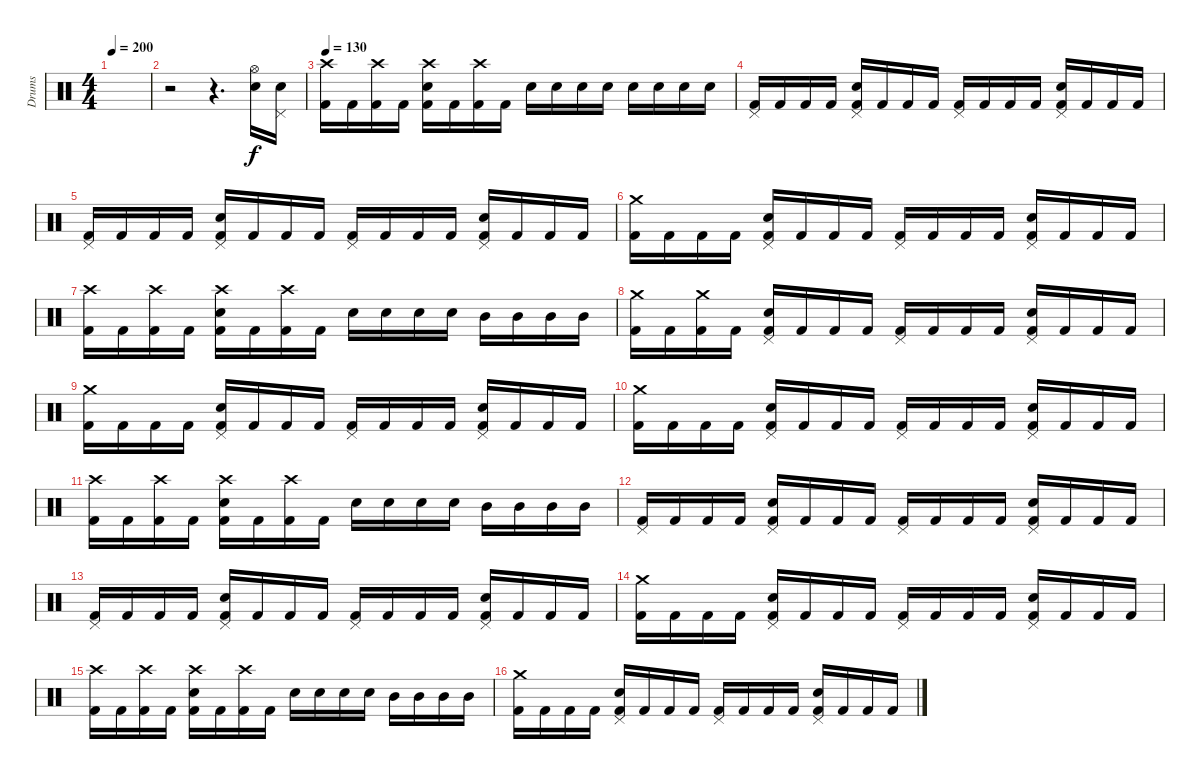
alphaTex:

\track ("Drums" "Drums") {instrument percussion}
\staff {score}
\articulation defaults
\ts (4 4)
\tempo 200
\clef neutral
\ks c
|
r.2 r.4{d} ("Hi-Hat (open)" "Electric Snare (hit)").16 ("Pedal Hi-Hat (hit)" "Electric Snare (hit)").16 |
\tempo 130
("Crash high (hit)" "Kick (hit) 2").16 "Kick (hit) 2".16 ("Crash high (hit)" "Kick (hit) 2").16 "Kick (hit) 2".16 ("Crash high (hit)" "Electric Snare (hit)" "Kick (hit) 2").16 "Kick (hit) 2".16 ("Crash high (hit)" "Kick (hit) 2").16 "Kick (hit) 2".16 "Electric Snare (hit)".16 "Electric Snare (hit)".16 "Electric Snare (hit)".16 "Electric Snare (hit)".16 "Electric Snare (hit)".16 "Electric Snare (hit)".16 "Electric Snare (hit)".16 "Electric Snare (hit)".16 |
("Pedal Hi-Hat (hit)" "Kick (hit) 2").16 "Kick (hit) 2".16 "Kick (hit) 2".16 "Kick (hit) 2".16 ("Pedal Hi-Hat (hit)" "Electric Snare (hit)" "Kick (hit) 2").16 "Kick (hit) 2".16 "Kick (hit) 2".16 "Kick (hit) 2".16 ("Pedal Hi-Hat (hit)" "Kick (hit) 2").16 "Kick (hit) 2".16 "Kick (hit) 2".16 "Kick (hit) 2".16 ("Pedal Hi-Hat (hit)" "Electric Snare (hit)" "Kick (hit) 2").16 "Kick (hit) 2".16 "Kick (hit) 2".16 "Kick (hit) 2".16 |
("Pedal Hi-Hat (hit)" "Kick (hit) 2").16 "Kick (hit) 2".16 "Kick (hit) 2".16 "Kick (hit) 2".16 ("Pedal Hi-Hat (hit)" "Electric Snare (hit)" "Kick (hit) 2").16 "Kick (hit) 2".16 "Kick (hit) 2".16 "Kick (hit) 2".16 ("Pedal Hi-Hat (hit)" "Kick (hit) 2").16 "Kick (hit) 2".16 "Kick (hit) 2".16 "Kick (hit) 2".16 ("Pedal Hi-Hat (hit)" "Electric Snare (hit)" "Kick (hit) 2").16 "Kick (hit) 2".16 "Kick (hit) 2".16 "Kick (hit) 2".16 |
("Crash medium (hit)" "Kick (hit) 2").16 "Kick (hit) 2".16 "Kick (hit) 2".16 "Kick (hit) 2".16 ("Pedal Hi-Hat (hit)" "Electric Snare (hit)" "Kick (hit) 2").16 "Kick (hit) 2".16 "Kick (hit) 2".16 "Kick (hit) 2".16 ("Pedal Hi-Hat (hit)" "Kick (hit) 2").16 "Kick (hit) 2".16 "Kick (hit) 2".16 "Kick (hit) 2".16 ("Pedal Hi-Hat (hit)" "Electric Snare (hit)" "Kick (hit) 2").16 "Kick (hit) 2".16 "Kick (hit) 2".16 "Kick (hit) 2".16 |
("Crash high (hit)" "Kick (hit) 2").16 "Kick (hit) 2".16 ("Crash high (hit)" "Kick (hit) 2").16 "Kick (hit) 2".16 ("Crash high (hit)" "Electric Snare (hit)" "Kick (hit) 2").16 "Kick (hit) 2".16 ("Crash high (hit)" "Kick (hit) 2").16 "Kick (hit) 2".16 "Electric Snare (hit)".16 "Electric Snare (hit)".16 "Electric Snare (hit)".16 "Electric Snare (hit)".16 "Mid Tom (hit)".16 "Mid Tom (hit)".16 "Mid Tom (hit)".16 "Mid Tom (hit)".16 |
("Crash medium (hit)" "Kick (hit) 2").16 "Kick (hit) 2".16 ("Crash medium (hit)" "Kick (hit) 2").16 "Kick (hit) 2".16 ("Pedal Hi-Hat (hit)" "Electric Snare (hit)" "Kick (hit) 2").16 "Kick (hit) 2".16 "Kick (hit) 2".16 "Kick (hit) 2".16 ("Pedal Hi-Hat (hit)" "Kick (hit) 2").16 "Kick (hit) 2".16 "Kick (hit) 2".16 "Kick (hit) 2".16 ("Pedal Hi-Hat (hit)" "Electric Snare (hit)" "Kick (hit) 2").16 "Kick (hit) 2".16 "Kick (hit) 2".16 "Kick (hit) 2".16 |
("Crash medium (hit)" "Kick (hit) 2").16 "Kick (hit) 2".16 "Kick (hit) 2".16 "Kick (hit) 2".16 ("Pedal Hi-Hat (hit)" "Electric Snare (hit)" "Kick (hit) 2").16 "Kick (hit) 2".16 "Kick (hit) 2".16 "Kick (hit) 2".16 ("Pedal Hi-Hat (hit)" "Kick (hit) 2").16 "Kick (hit) 2".16 "Kick (hit) 2".16 "Kick (hit) 2".16 ("Pedal Hi-Hat (hit)" "Electric Snare (hit)" "Kick (hit) 2").16 "Kick (hit) 2".16 "Kick (hit) 2".16 "Kick (hit) 2".16 |
("Crash medium (hit)" "Kick (hit) 2").16 "Kick (hit) 2".16 "Kick (hit) 2".16 "Kick (hit) 2".16 ("Pedal Hi-Hat (hit)" "Electric Snare (hit)" "Kick (hit) 2").16 "Kick (hit) 2".16 "Kick (hit) 2".16 "Kick (hit) 2".16 ("Pedal Hi-Hat (hit)" "Kick (hit) 2").16 "Kick (hit) 2".16 "Kick (hit) 2".16 "Kick (hit) 2".16 ("Pedal Hi-Hat (hit)" "Electric Snare (hit)" "Kick (hit) 2").16 "Kick (hit) 2".16 "Kick (hit) 2".16 "Kick (hit) 2".16 |
("Crash high (hit)" "Kick (hit) 2").16 "Kick (hit) 2".16 ("Crash high (hit)" "Kick (hit) 2").16 "Kick (hit) 2".16 ("Crash high (hit)" "Electric Snare (hit)" "Kick (hit) 2").16 "Kick (hit) 2".16 ("Crash high (hit)" "Kick (hit) 2").16 "Kick (hit) 2".16 "Electric Snare (hit)".16 "Electric Snare (hit)".16 "Electric Snare (hit)".16 "Electric Snare (hit)".16 "Mid Tom (hit)".16 "Mid Tom (hit)".16 "Mid Tom (hit)".16 "Mid Tom (hit)".16 |
("Pedal Hi-Hat (hit)" "Kick (hit) 2").16 "Kick (hit) 2".16 "Kick (hit) 2".16 "Kick (hit) 2".16 ("Pedal Hi-Hat (hit)" "Electric Snare (hit)" "Kick (hit) 2").16 "Kick (hit) 2".16 "Kick (hit) 2".16 "Kick (hit) 2".16 ("Pedal Hi-Hat (hit)" "Kick (hit) 2").16 "Kick (hit) 2".16 "Kick (hit) 2".16 "Kick (hit) 2".16 ("Pedal Hi-Hat (hit)" "Electric Snare (hit)" "Kick (hit) 2").16 "Kick (hit) 2".16 "Kick (hit) 2".16 "Kick (hit) 2".16 |
("Pedal Hi-Hat (hit)" "Kick (hit) 2").16 "Kick (hit) 2".16 "Kick (hit) 2".16 "Kick (hit) 2".16 ("Pedal Hi-Hat (hit)" "Electric Snare (hit)" "Kick (hit) 2").16 "Kick (hit) 2".16 "Kick (hit) 2".16 "Kick (hit) 2".16 ("Pedal Hi-Hat (hit)" "Kick (hit) 2").16 "Kick (hit) 2".16 "Kick (hit) 2".16 "Kick (hit) 2".16 ("Pedal Hi-Hat (hit)" "Electric Snare (hit)" "Kick (hit) 2").16 "Kick (hit) 2".16 "Kick (hit) 2".16 "Kick (hit) 2".16 |
("Crash medium (hit)" "Kick (hit) 2").16 "Kick (hit) 2".16 "Kick (hit) 2".16 "Kick (hit) 2".16 ("Pedal Hi-Hat (hit)" "Electric Snare (hit)" "Kick (hit) 2").16 "Kick (hit) 2".16 "Kick (hit) 2".16 "Kick (hit) 2".16 ("Pedal Hi-Hat (hit)" "Kick (hit) 2").16 "Kick (hit) 2".16 "Kick (hit) 2".16 "Kick (hit) 2".16 ("Pedal Hi-Hat (hit)" "Electric Snare (hit)" "Kick (hit) 2").16 "Kick (hit) 2".16 "Kick (hit) 2".16 "Kick (hit) 2".16 |
("Crash high (hit)" "Kick (hit) 2").16 "Kick (hit) 2".16 ("Crash high (hit)" "Kick (hit) 2").16 "Kick (hit) 2".16 ("Crash high (hit)" "Electric Snare (hit)" "Kick (hit) 2").16 "Kick (hit) 2".16 ("Crash high (hit)" "Kick (hit) 2").16 "Kick (hit) 2".16 "Electric Snare (hit)".16 "Electric Snare (hit)".16 "Electric Snare (hit)".16 "Electric Snare (hit)".16 "Mid Tom (hit)".16 "Mid Tom (hit)".16 "Mid Tom (hit)".16 "Mid Tom (hit)".16 |
("Crash medium (hit)" "Kick (hit) 2").16 "Kick (hit) 2".16 "Kick (hit) 2".16 "Kick (hit) 2".16 ("Pedal Hi-Hat (hit)" "Electric Snare (hit)" "Kick (hit) 2").16 "Kick (hit) 2".16 "Kick (hit) 2".16 "Kick (hit) 2".16 ("Pedal Hi-Hat (hit)" "Kick (hit) 2").16 "Kick (hit) 2".16 "Kick (hit) 2".16 "Kick (hit) 2".16 ("Pedal Hi-Hat (hit)" "Electric Snare (hit)" "Kick (hit) 2").16 "Kick (hit) 2".16 "Kick (hit) 2".16 "Kick (hit) 2".16
